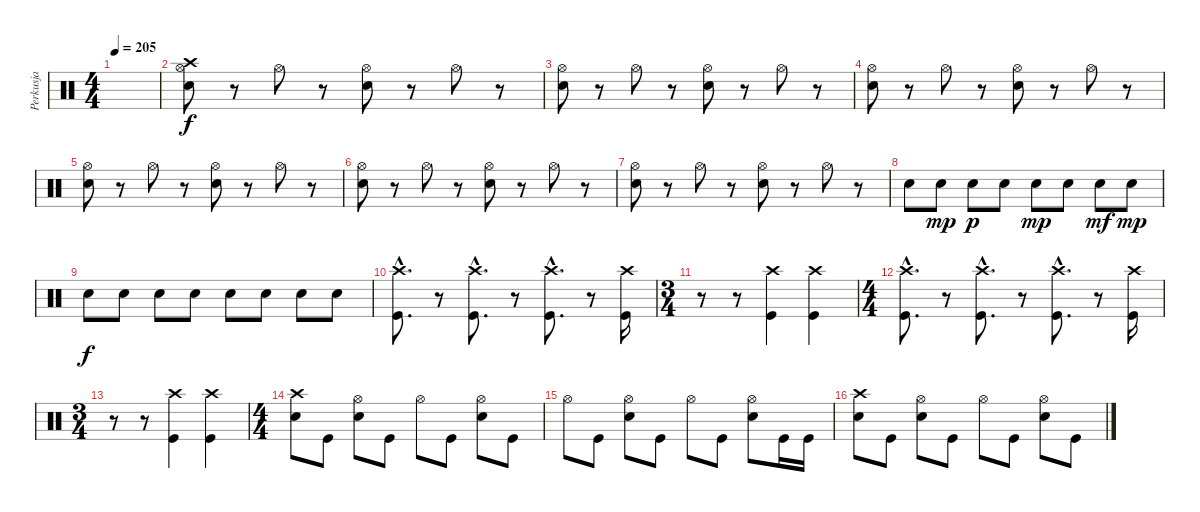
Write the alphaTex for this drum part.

\track ("Perkusja" "Perkusja") {instrument percussion}
\staff {score}
\articulation defaults
\ts (4 4)
\tempo 205
\clef neutral
\ks c
|
("Crash high (hit)" "Snare (hit) 2" "Hi-Hat (open)").8 r.8 "Hi-Hat (open)".8 r.8 ("Snare (hit) 2" "Hi-Hat (open)").8 r.8 "Hi-Hat (open)".8 r.8 |
("Snare (hit) 2" "Hi-Hat (open)").8 r.8 "Hi-Hat (open)".8 r.8 ("Snare (hit) 2" "Hi-Hat (open)").8 r.8 "Hi-Hat (open)".8 r.8 |
("Snare (hit) 2" "Hi-Hat (open)").8 r.8 "Hi-Hat (open)".8 r.8 ("Snare (hit) 2" "Hi-Hat (open)").8 r.8 "Hi-Hat (open)".8 r.8 |
("Snare (hit) 2" "Hi-Hat (open)").8 r.8 "Hi-Hat (open)".8 r.8 ("Snare (hit) 2" "Hi-Hat (open)").8 r.8 "Hi-Hat (open)".8 r.8 |
("Snare (hit) 2" "Hi-Hat (open)").8 r.8 "Hi-Hat (open)".8 r.8 ("Snare (hit) 2" "Hi-Hat (open)").8 r.8 "Hi-Hat (open)".8 r.8 |
("Snare (hit) 2" "Hi-Hat (open)").8 r.8 "Hi-Hat (open)".8 r.8 ("Snare (hit) 2" "Hi-Hat (open)").8 r.8 "Hi-Hat (open)".8 r.8 |
"Snare (hit) 2".8 "Snare (hit) 2".8{dy mp} "Snare (hit) 2".8{dy p} "Snare (hit) 2".8 "Snare (hit) 2".8{dy mp} "Snare (hit) 2".8 "Snare (hit) 2".8{dy mf} "Snare (hit) 2".8{dy mp} |
"Snare (hit) 2".8{dy f} "Snare (hit) 2".8 "Snare (hit) 2".8 "Snare (hit) 2".8 "Snare (hit) 2".8 "Snare (hit) 2".8 "Snare (hit) 2".8 "Snare (hit) 2".8 |
("Crash high (hit)"{hac} "Kick (hit)"{hac}).8{d} r.8 ("Crash high (hit)"{hac} "Kick (hit)"{hac}).8{d} r.8 ("Crash high (hit)"{hac} "Kick (hit)"{hac}).8{d} r.8 ("Crash high (hit)" "Kick (hit)").16 |
\ts (3 4)
r.8 r.8 ("Crash high (hit)" "Kick (hit)").4 ("Crash high (hit)" "Kick (hit)").4 |
\ts (4 4)
("Crash high (hit)"{hac} "Kick (hit)"{hac}).8{d} r.8 ("Crash high (hit)"{hac} "Kick (hit)"{hac}).8{d} r.8 ("Crash high (hit)"{hac} "Kick (hit)"{hac}).8{d} r.8 ("Crash high (hit)" "Kick (hit)").16 |
\ts (3 4)
r.8 r.8 ("Crash high (hit)" "Kick (hit)").4 ("Crash high (hit)" "Kick (hit)").4 |
\ts (4 4)
("Crash high (hit)" "Snare (hit) 2").8 "Kick (hit)".8 ("Hi-Hat (open)" "Snare (hit) 2").8 "Kick (hit)".8 "Hi-Hat (open)".8 "Kick (hit)".8 ("Hi-Hat (open)" "Snare (hit) 2").8 "Kick (hit)".8 |
"Hi-Hat (open)".8 "Kick (hit)".8 ("Hi-Hat (open)" "Snare (hit) 2").8 "Kick (hit)".8 "Hi-Hat (open)".8 "Kick (hit)".8 ("Hi-Hat (open)" "Snare (hit) 2").8 "Kick (hit)".16 "Kick (hit)".16 |
("Crash high (hit)" "Snare (hit) 2").8 "Kick (hit)".8 ("Hi-Hat (open)" "Snare (hit) 2").8 "Kick (hit)".8 "Hi-Hat (open)".8 "Kick (hit)".8 ("Hi-Hat (open)" "Snare (hit) 2").8 "Kick (hit)".8
